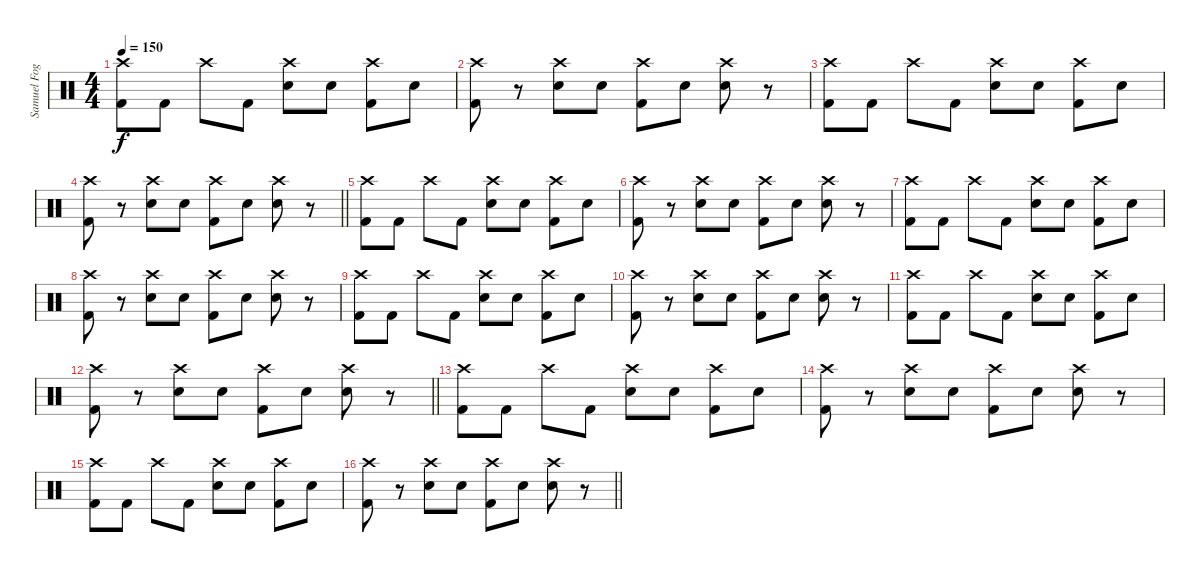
\track ("Samuel Fogarino" "Samuel Fog") {instrument percussion}
\staff {score}
\articulation defaults
\ts (4 4)
\tempo 150
\clef neutral
\ks c
("Crash high (hit)" "Kick (hit) 2").8{dy f} "Kick (hit) 2".8 "Crash high (hit)".8 "Kick (hit) 2".8 ("Crash high (hit)" "Electric Snare (hit)").8 "Electric Snare (hit)".8 ("Crash high (hit)" "Kick (hit) 2").8 "Electric Snare (hit)".8 |
("Crash high (hit)" "Kick (hit) 2").8 r.8 ("Crash high (hit)" "Electric Snare (hit)").8 "Electric Snare (hit)".8 ("Crash high (hit)" "Kick (hit) 2").8 "Electric Snare (hit)".8 ("Crash high (hit)" "Electric Snare (hit)").8 r.8 |
("Crash high (hit)" "Kick (hit) 2").8 "Kick (hit) 2".8 "Crash high (hit)".8 "Kick (hit) 2".8 ("Crash high (hit)" "Electric Snare (hit)").8 "Electric Snare (hit)".8 ("Crash high (hit)" "Kick (hit) 2").8 "Electric Snare (hit)".8 |
\barLineRight lightlight
("Crash high (hit)" "Kick (hit) 2").8 r.8 ("Crash high (hit)" "Electric Snare (hit)").8 "Electric Snare (hit)".8 ("Crash high (hit)" "Kick (hit) 2").8 "Electric Snare (hit)".8 ("Crash high (hit)" "Electric Snare (hit)").8 r.8 |
("Crash high (hit)" "Kick (hit) 2").8 "Kick (hit) 2".8 "Crash high (hit)".8 "Kick (hit) 2".8 ("Crash high (hit)" "Electric Snare (hit)").8 "Electric Snare (hit)".8 ("Crash high (hit)" "Kick (hit) 2").8 "Electric Snare (hit)".8 |
("Crash high (hit)" "Kick (hit) 2").8 r.8 ("Crash high (hit)" "Electric Snare (hit)").8 "Electric Snare (hit)".8 ("Crash high (hit)" "Kick (hit) 2").8 "Electric Snare (hit)".8 ("Crash high (hit)" "Electric Snare (hit)").8 r.8 |
("Crash high (hit)" "Kick (hit) 2").8 "Kick (hit) 2".8 "Crash high (hit)".8 "Kick (hit) 2".8 ("Crash high (hit)" "Electric Snare (hit)").8 "Electric Snare (hit)".8 ("Crash high (hit)" "Kick (hit) 2").8 "Electric Snare (hit)".8 |
("Crash high (hit)" "Kick (hit) 2").8 r.8 ("Crash high (hit)" "Electric Snare (hit)").8 "Electric Snare (hit)".8 ("Crash high (hit)" "Kick (hit) 2").8 "Electric Snare (hit)".8 ("Crash high (hit)" "Electric Snare (hit)").8 r.8 |
("Crash high (hit)" "Kick (hit) 2").8 "Kick (hit) 2".8 "Crash high (hit)".8 "Kick (hit) 2".8 ("Crash high (hit)" "Electric Snare (hit)").8 "Electric Snare (hit)".8 ("Crash high (hit)" "Kick (hit) 2").8 "Electric Snare (hit)".8 |
("Crash high (hit)" "Kick (hit) 2").8 r.8 ("Crash high (hit)" "Electric Snare (hit)").8 "Electric Snare (hit)".8 ("Crash high (hit)" "Kick (hit) 2").8 "Electric Snare (hit)".8 ("Crash high (hit)" "Electric Snare (hit)").8 r.8 |
("Crash high (hit)" "Kick (hit) 2").8 "Kick (hit) 2".8 "Crash high (hit)".8 "Kick (hit) 2".8 ("Crash high (hit)" "Electric Snare (hit)").8 "Electric Snare (hit)".8 ("Crash high (hit)" "Kick (hit) 2").8 "Electric Snare (hit)".8 |
\barLineRight lightlight
("Crash high (hit)" "Kick (hit) 2").8 r.8 ("Crash high (hit)" "Electric Snare (hit)").8 "Electric Snare (hit)".8 ("Crash high (hit)" "Kick (hit) 2").8 "Electric Snare (hit)".8 ("Crash high (hit)" "Electric Snare (hit)").8 r.8 |
("Crash high (hit)" "Kick (hit) 2").8 "Kick (hit) 2".8 "Crash high (hit)".8 "Kick (hit) 2".8 ("Crash high (hit)" "Electric Snare (hit)").8 "Electric Snare (hit)".8 ("Crash high (hit)" "Kick (hit) 2").8 "Electric Snare (hit)".8 |
("Crash high (hit)" "Kick (hit) 2").8 r.8 ("Crash high (hit)" "Electric Snare (hit)").8 "Electric Snare (hit)".8 ("Crash high (hit)" "Kick (hit) 2").8 "Electric Snare (hit)".8 ("Crash high (hit)" "Electric Snare (hit)").8 r.8 |
("Crash high (hit)" "Kick (hit) 2").8 "Kick (hit) 2".8 "Crash high (hit)".8 "Kick (hit) 2".8 ("Crash high (hit)" "Electric Snare (hit)").8 "Electric Snare (hit)".8 ("Crash high (hit)" "Kick (hit) 2").8 "Electric Snare (hit)".8 |
\barLineRight lightlight
("Crash high (hit)" "Kick (hit) 2").8 r.8 ("Crash high (hit)" "Electric Snare (hit)").8 "Electric Snare (hit)".8 ("Crash high (hit)" "Kick (hit) 2").8 "Electric Snare (hit)".8 ("Crash high (hit)" "Electric Snare (hit)").8 r.8
